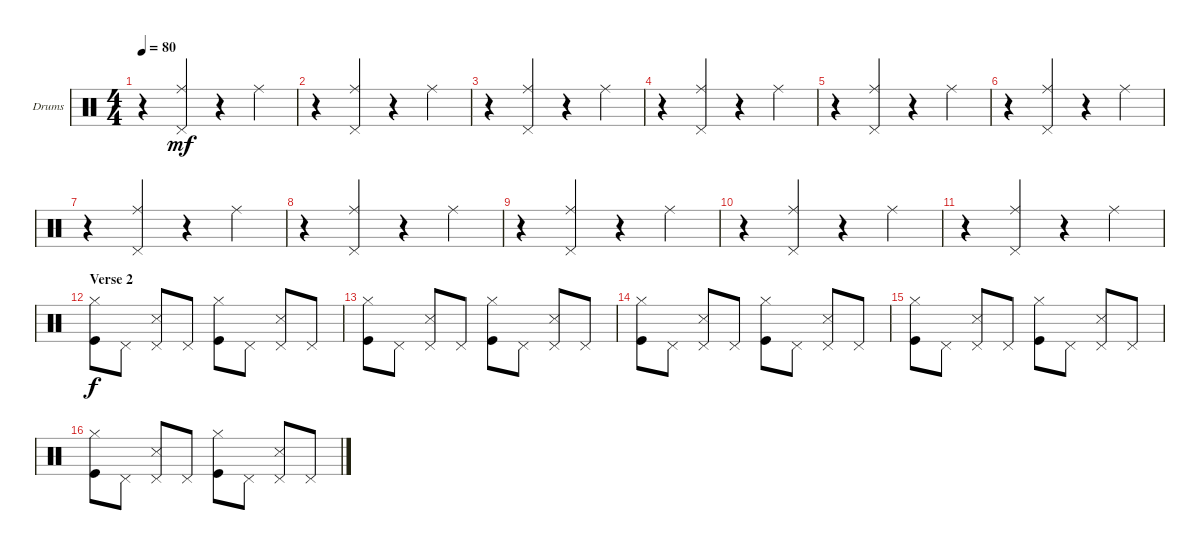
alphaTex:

\defaultSystemsLayout 4
\bracketExtendMode groupsimilarinstruments
\firstSystemTrackNameOrientation horizontal
\otherSystemsTrackNameOrientation horizontal
\track ("Drumkit" "Drums") {instrument percussion}
\staff {score}
\articulation defaults
\ts (4 4)
\tempo 80
\clef neutral
\ks c
r.4{dy mf} ("Pedal Hi-Hat (hit)" "Ride (middle)").4 r.4 "Ride (middle)".4 |
r.4 ("Pedal Hi-Hat (hit)" "Ride (middle)").4 r.4 "Ride (middle)".4 |
r.4 ("Pedal Hi-Hat (hit)" "Ride (middle)").4 r.4 "Ride (middle)".4 |
r.4 ("Pedal Hi-Hat (hit)" "Ride (middle)").4 r.4 "Ride (middle)".4 |
r.4 ("Pedal Hi-Hat (hit)" "Ride (middle)").4 r.4 "Ride (middle)".4 |
r.4 ("Pedal Hi-Hat (hit)" "Ride (middle)").4 r.4 "Ride (middle)".4 |
r.4 ("Pedal Hi-Hat (hit)" "Ride (middle)").4 r.4 "Ride (middle)".4 |
r.4 ("Pedal Hi-Hat (hit)" "Ride (middle)").4 r.4 "Ride (middle)".4 |
r.4 ("Pedal Hi-Hat (hit)" "Ride (middle)").4 r.4 "Ride (middle)".4 |
r.4 ("Pedal Hi-Hat (hit)" "Ride (middle)").4 r.4 "Ride (middle)".4 |
r.4 ("Pedal Hi-Hat (hit)" "Ride (middle)").4 r.4 "Ride (middle)".4 |
\section ("" "Verse 2")
("Hi-Hat (closed)" "Kick (hit)").8{dy f} "Pedal Hi-Hat (hit)".8 ("Pedal Hi-Hat (hit)" "Snare (side stick) 3").8 "Pedal Hi-Hat (hit)".8 ("Hi-Hat (closed)" "Kick (hit)").8 "Pedal Hi-Hat (hit)".8 ("Pedal Hi-Hat (hit)" "Snare (side stick) 3").8 "Pedal Hi-Hat (hit)".8 |
("Hi-Hat (closed)" "Kick (hit)").8 "Pedal Hi-Hat (hit)".8 ("Pedal Hi-Hat (hit)" "Snare (side stick) 3").8 "Pedal Hi-Hat (hit)".8 ("Hi-Hat (closed)" "Kick (hit)").8 "Pedal Hi-Hat (hit)".8 ("Pedal Hi-Hat (hit)" "Snare (side stick) 3").8 "Pedal Hi-Hat (hit)".8 |
("Hi-Hat (closed)" "Kick (hit)").8 "Pedal Hi-Hat (hit)".8 ("Pedal Hi-Hat (hit)" "Snare (side stick) 3").8 "Pedal Hi-Hat (hit)".8 ("Hi-Hat (closed)" "Kick (hit)").8 "Pedal Hi-Hat (hit)".8 ("Pedal Hi-Hat (hit)" "Snare (side stick) 3").8 "Pedal Hi-Hat (hit)".8 |
("Hi-Hat (closed)" "Kick (hit)").8 "Pedal Hi-Hat (hit)".8 ("Pedal Hi-Hat (hit)" "Snare (side stick) 3").8 "Pedal Hi-Hat (hit)".8 ("Hi-Hat (closed)" "Kick (hit)").8 "Pedal Hi-Hat (hit)".8 ("Pedal Hi-Hat (hit)" "Snare (side stick) 3").8 "Pedal Hi-Hat (hit)".8 |
("Hi-Hat (closed)" "Kick (hit)").8 "Pedal Hi-Hat (hit)".8 ("Pedal Hi-Hat (hit)" "Snare (side stick) 3").8 "Pedal Hi-Hat (hit)".8 ("Hi-Hat (closed)" "Kick (hit)").8 "Pedal Hi-Hat (hit)".8 ("Pedal Hi-Hat (hit)" "Snare (side stick) 3").8 "Pedal Hi-Hat (hit)".8
